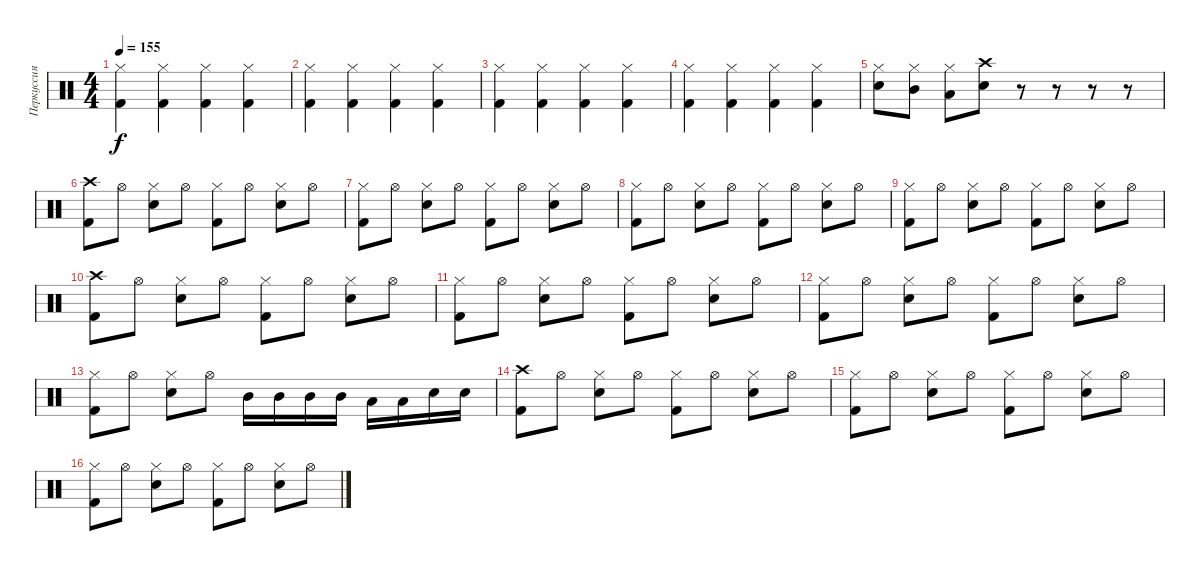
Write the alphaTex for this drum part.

\track ("Перкуссия" "Перкуссия") {instrument percussion}
\staff {score}
\articulation defaults
\ts (4 4)
\tempo 155
\clef neutral
\ks c
("Hi-Hat (closed)" "Kick (hit) 2").4{dy f} ("Hi-Hat (closed)" "Kick (hit) 2").4 ("Hi-Hat (closed)" "Kick (hit) 2").4 ("Hi-Hat (closed)" "Kick (hit) 2").4 |
("Hi-Hat (closed)" "Kick (hit) 2").4 ("Hi-Hat (closed)" "Kick (hit) 2").4 ("Hi-Hat (closed)" "Kick (hit) 2").4 ("Hi-Hat (closed)" "Kick (hit) 2").4 |
("Hi-Hat (closed)" "Kick (hit) 2").4 ("Hi-Hat (closed)" "Kick (hit) 2").4 ("Hi-Hat (closed)" "Kick (hit) 2").4 ("Hi-Hat (closed)" "Kick (hit) 2").4 |
("Hi-Hat (closed)" "Kick (hit) 2").4 ("Hi-Hat (closed)" "Kick (hit) 2").4 ("Hi-Hat (closed)" "Kick (hit) 2").4 ("Hi-Hat (closed)" "Kick (hit) 2").4 |
("Hi-Hat (closed)" "Snare (hit) 2").8 ("Hi-Hat (closed)" "Mid Tom (hit)").8 ("Hi-Hat (closed)" "Low Tom (hit)").8 ("Crash high (hit)" "Snare (hit) 2").8 r.8 r.8 r.8 r.8 |
("Crash high (hit)" "Kick (hit) 2").8 "Hi-Hat (open)".8 ("Hi-Hat (closed)" "Snare (hit) 2").8 "Hi-Hat (open)".8 ("Hi-Hat (closed)" "Kick (hit) 2").8 "Hi-Hat (open)".8 ("Hi-Hat (closed)" "Snare (hit) 2").8 "Hi-Hat (open)".8 |
("Hi-Hat (closed)" "Kick (hit) 2").8 "Hi-Hat (open)".8 ("Hi-Hat (closed)" "Snare (hit) 2").8 "Hi-Hat (open)".8 ("Hi-Hat (closed)" "Kick (hit) 2").8 "Hi-Hat (open)".8 ("Hi-Hat (closed)" "Snare (hit) 2").8 "Hi-Hat (open)".8 |
("Hi-Hat (closed)" "Kick (hit) 2").8 "Hi-Hat (open)".8 ("Hi-Hat (closed)" "Snare (hit) 2").8 "Hi-Hat (open)".8 ("Hi-Hat (closed)" "Kick (hit) 2").8 "Hi-Hat (open)".8 ("Hi-Hat (closed)" "Snare (hit) 2").8 "Hi-Hat (open)".8 |
("Hi-Hat (closed)" "Kick (hit) 2").8 "Hi-Hat (open)".8 ("Hi-Hat (closed)" "Snare (hit) 2").8 "Hi-Hat (open)".8 ("Hi-Hat (closed)" "Kick (hit) 2").8 "Hi-Hat (open)".8 ("Hi-Hat (closed)" "Snare (hit) 2").8 "Hi-Hat (open)".8 |
("Crash high (hit)" "Kick (hit) 2").8 "Hi-Hat (open)".8 ("Hi-Hat (closed)" "Snare (hit) 2").8 "Hi-Hat (open)".8 ("Hi-Hat (closed)" "Kick (hit) 2").8 "Hi-Hat (open)".8 ("Hi-Hat (closed)" "Snare (hit) 2").8 "Hi-Hat (open)".8 |
("Hi-Hat (closed)" "Kick (hit) 2").8 "Hi-Hat (open)".8 ("Hi-Hat (closed)" "Snare (hit) 2").8 "Hi-Hat (open)".8 ("Hi-Hat (closed)" "Kick (hit) 2").8 "Hi-Hat (open)".8 ("Hi-Hat (closed)" "Snare (hit) 2").8 "Hi-Hat (open)".8 |
("Hi-Hat (closed)" "Kick (hit) 2").8 "Hi-Hat (open)".8 ("Hi-Hat (closed)" "Snare (hit) 2").8 "Hi-Hat (open)".8 ("Hi-Hat (closed)" "Kick (hit) 2").8 "Hi-Hat (open)".8 ("Hi-Hat (closed)" "Snare (hit) 2").8 "Hi-Hat (open)".8 |
("Hi-Hat (closed)" "Kick (hit) 2").8 "Hi-Hat (open)".8 ("Hi-Hat (closed)" "Snare (hit) 2").8 "Hi-Hat (open)".8 "Mid Tom (hit)".16 "Mid Tom (hit)".16 "Mid Tom (hit)".16 "Mid Tom (hit)".16 "Low Tom (hit)".16 "Low Tom (hit)".16 "Snare (hit) 2".16 "Snare (hit) 2".16 |
("Crash high (hit)" "Kick (hit) 2").8 "Hi-Hat (open)".8 ("Hi-Hat (closed)" "Snare (hit) 2").8 "Hi-Hat (open)".8 ("Hi-Hat (closed)" "Kick (hit) 2").8 "Hi-Hat (open)".8 ("Hi-Hat (closed)" "Snare (hit) 2").8 "Hi-Hat (open)".8 |
("Hi-Hat (closed)" "Kick (hit) 2").8 "Hi-Hat (open)".8 ("Hi-Hat (closed)" "Snare (hit) 2").8 "Hi-Hat (open)".8 ("Hi-Hat (closed)" "Kick (hit) 2").8 "Hi-Hat (open)".8 ("Hi-Hat (closed)" "Snare (hit) 2").8 "Hi-Hat (open)".8 |
("Hi-Hat (closed)" "Kick (hit) 2").8 "Hi-Hat (open)".8 ("Hi-Hat (closed)" "Snare (hit) 2").8 "Hi-Hat (open)".8 ("Hi-Hat (closed)" "Kick (hit) 2").8 "Hi-Hat (open)".8 ("Hi-Hat (closed)" "Snare (hit) 2").8 "Hi-Hat (open)".8
